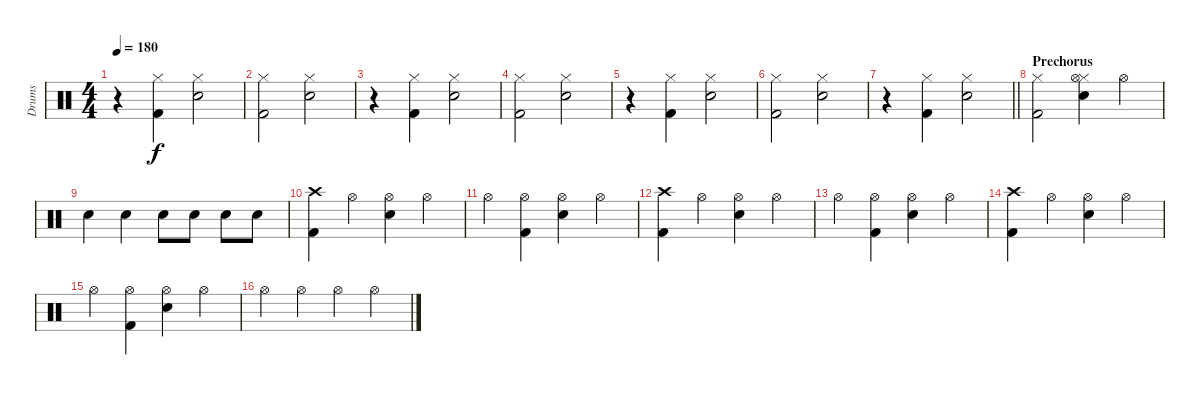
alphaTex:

\track ("Drums" "Drums") {instrument percussion}
\staff {score}
\articulation defaults
\ts (4 4)
\tempo 180
\clef neutral
\ks c
r.4{dy f} ("Hi-Hat (closed)" "Kick (hit) 2").4 ("Hi-Hat (closed)" "Electric Snare (hit)").2 |
("Hi-Hat (closed)" "Kick (hit) 2").2 ("Hi-Hat (closed)" "Electric Snare (hit)").2 |
r.4 ("Hi-Hat (closed)" "Kick (hit) 2").4 ("Hi-Hat (closed)" "Electric Snare (hit)").2 |
("Hi-Hat (closed)" "Kick (hit) 2").2 ("Hi-Hat (closed)" "Electric Snare (hit)").2 |
r.4 ("Hi-Hat (closed)" "Kick (hit) 2").4 ("Hi-Hat (closed)" "Electric Snare (hit)").2 |
("Hi-Hat (closed)" "Kick (hit) 2").2 ("Hi-Hat (closed)" "Electric Snare (hit)").2 |
\barLineRight lightlight
r.4 ("Hi-Hat (closed)" "Kick (hit) 2").4 ("Hi-Hat (closed)" "Electric Snare (hit)").2 |
\section ("" "Prechorus")
("Hi-Hat (closed)" "Kick (hit) 2").2 ("Hi-Hat (closed)" "Electric Snare (hit)" "Hi-Hat (open)").4 "Hi-Hat (open)".4 |
"Electric Snare (hit)".4 "Electric Snare (hit)".4 "Electric Snare (hit)".8 "Electric Snare (hit)".8 "Electric Snare (hit)".8 "Electric Snare (hit)".8 |
("Kick (hit) 2" "Crash high (hit)").4 "Hi-Hat (open)".4 ("Hi-Hat (open)" "Electric Snare (hit)").4 "Hi-Hat (open)".4 |
"Hi-Hat (open)".4 ("Hi-Hat (open)" "Kick (hit) 2").4 ("Hi-Hat (open)" "Electric Snare (hit)").4 "Hi-Hat (open)".4 |
("Kick (hit) 2" "Crash high (hit)").4 "Hi-Hat (open)".4 ("Hi-Hat (open)" "Electric Snare (hit)").4 "Hi-Hat (open)".4 |
"Hi-Hat (open)".4 ("Hi-Hat (open)" "Kick (hit) 2").4 ("Hi-Hat (open)" "Electric Snare (hit)").4 "Hi-Hat (open)".4 |
("Kick (hit) 2" "Crash high (hit)").4 "Hi-Hat (open)".4 ("Hi-Hat (open)" "Electric Snare (hit)").4 "Hi-Hat (open)".4 |
"Hi-Hat (open)".4 ("Hi-Hat (open)" "Kick (hit) 2").4 ("Hi-Hat (open)" "Electric Snare (hit)").4 "Hi-Hat (open)".4 |
"Hi-Hat (open)".4 "Hi-Hat (open)".4 "Hi-Hat (open)".4 "Hi-Hat (open)".4
